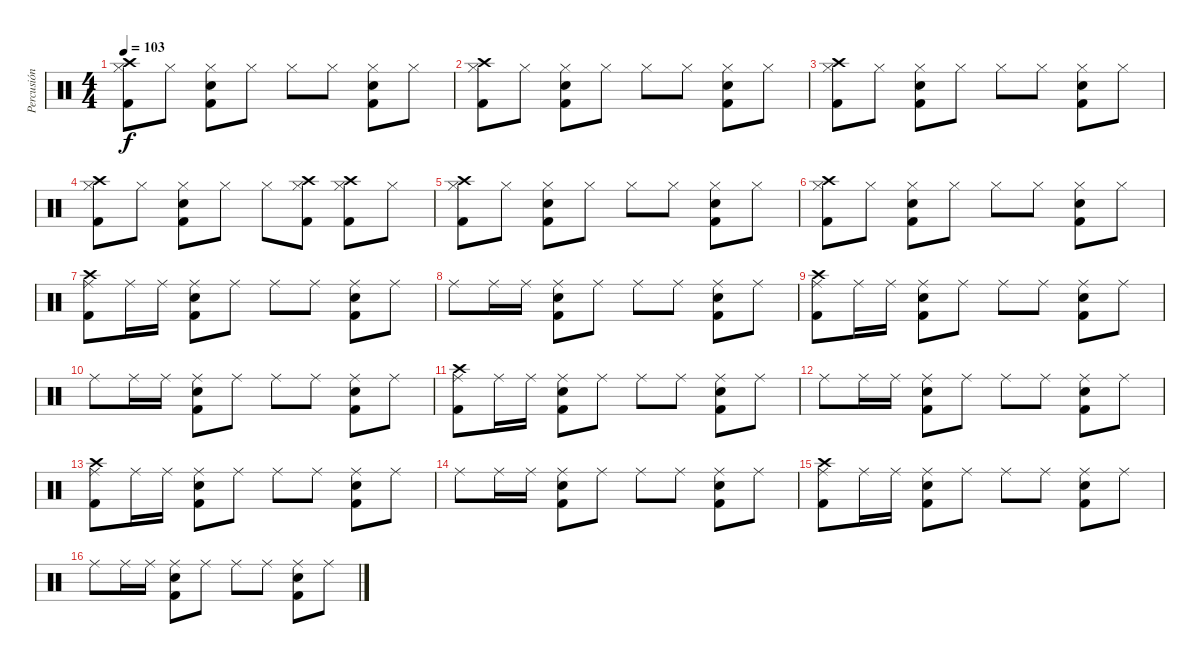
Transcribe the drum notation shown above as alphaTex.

\track ("Percusión" "Percusión") {instrument percussion}
\staff {score}
\articulation defaults
\ts (4 4)
\tempo 103
\clef neutral
\ks c
("Hi-Hat (closed)" "Crash high (hit)" "Kick (hit) 2").8{dy f} "Hi-Hat (closed)".8 ("Hi-Hat (closed)" "Snare (hit) 2" "Kick (hit) 2").8 "Hi-Hat (closed)".8 "Hi-Hat (closed)".8 "Hi-Hat (closed)".8 ("Hi-Hat (closed)" "Snare (hit) 2" "Kick (hit) 2").8 "Hi-Hat (closed)".8 |
("Hi-Hat (closed)" "Crash high (hit)" "Kick (hit) 2").8 "Hi-Hat (closed)".8 ("Hi-Hat (closed)" "Snare (hit) 2" "Kick (hit) 2").8 "Hi-Hat (closed)".8 "Hi-Hat (closed)".8 "Hi-Hat (closed)".8 ("Hi-Hat (closed)" "Snare (hit) 2" "Kick (hit) 2").8 "Hi-Hat (closed)".8 |
("Hi-Hat (closed)" "Crash high (hit)" "Kick (hit) 2").8 "Hi-Hat (closed)".8 ("Hi-Hat (closed)" "Snare (hit) 2" "Kick (hit) 2").8 "Hi-Hat (closed)".8 "Hi-Hat (closed)".8 "Hi-Hat (closed)".8 ("Hi-Hat (closed)" "Snare (hit) 2" "Kick (hit) 2").8 "Hi-Hat (closed)".8 |
("Hi-Hat (closed)" "Crash high (hit)" "Kick (hit) 2").8 "Hi-Hat (closed)".8 ("Hi-Hat (closed)" "Snare (hit) 2" "Kick (hit) 2").8 "Hi-Hat (closed)".8 "Hi-Hat (closed)".8 ("Hi-Hat (closed)" "Crash high (hit)" "Kick (hit) 2").8 ("Hi-Hat (closed)" "Crash high (hit)" "Kick (hit) 2").8 "Hi-Hat (closed)".8 |
("Hi-Hat (closed)" "Crash high (hit)" "Kick (hit) 2").8 "Hi-Hat (closed)".8 ("Hi-Hat (closed)" "Snare (hit) 2" "Kick (hit) 2").8 "Hi-Hat (closed)".8 "Hi-Hat (closed)".8 "Hi-Hat (closed)".8 ("Hi-Hat (closed)" "Snare (hit) 2" "Kick (hit) 2").8 "Hi-Hat (closed)".8 |
("Hi-Hat (closed)" "Crash high (hit)" "Kick (hit) 2").8 "Hi-Hat (closed)".8 ("Hi-Hat (closed)" "Snare (hit) 2" "Kick (hit) 2").8 "Hi-Hat (closed)".8 "Hi-Hat (closed)".8 "Hi-Hat (closed)".8 ("Hi-Hat (closed)" "Snare (hit) 2" "Kick (hit) 2").8 "Hi-Hat (closed)".8 |
("Ride (middle)" "Crash high (hit)" "Kick (hit) 2").8 "Ride (middle)".16 "Ride (middle)".16 ("Ride (middle)" "Snare (hit) 2" "Kick (hit) 2").8 "Ride (middle)".8 "Ride (middle)".8 "Ride (middle)".8 ("Ride (middle)" "Snare (hit) 2" "Kick (hit) 2").8 "Ride (middle)".8 |
"Ride (middle)".8 "Ride (middle)".16 "Ride (middle)".16 ("Ride (middle)" "Snare (hit) 2" "Kick (hit) 2").8 "Ride (middle)".8 "Ride (middle)".8 "Ride (middle)".8 ("Ride (middle)" "Snare (hit) 2" "Kick (hit) 2").8 "Ride (middle)".8 |
("Ride (middle)" "Crash high (hit)" "Kick (hit) 2").8 "Ride (middle)".16 "Ride (middle)".16 ("Ride (middle)" "Snare (hit) 2" "Kick (hit) 2").8 "Ride (middle)".8 "Ride (middle)".8 "Ride (middle)".8 ("Ride (middle)" "Snare (hit) 2" "Kick (hit) 2").8 "Ride (middle)".8 |
"Ride (middle)".8 "Ride (middle)".16 "Ride (middle)".16 ("Ride (middle)" "Snare (hit) 2" "Kick (hit) 2").8 "Ride (middle)".8 "Ride (middle)".8 "Ride (middle)".8 ("Ride (middle)" "Snare (hit) 2" "Kick (hit) 2").8 "Ride (middle)".8 |
("Ride (middle)" "Crash high (hit)" "Kick (hit) 2").8 "Ride (middle)".16 "Ride (middle)".16 ("Ride (middle)" "Snare (hit) 2" "Kick (hit) 2").8 "Ride (middle)".8 "Ride (middle)".8 "Ride (middle)".8 ("Ride (middle)" "Snare (hit) 2" "Kick (hit) 2").8 "Ride (middle)".8 |
"Ride (middle)".8 "Ride (middle)".16 "Ride (middle)".16 ("Ride (middle)" "Snare (hit) 2" "Kick (hit) 2").8 "Ride (middle)".8 "Ride (middle)".8 "Ride (middle)".8 ("Ride (middle)" "Snare (hit) 2" "Kick (hit) 2").8 "Ride (middle)".8 |
("Ride (middle)" "Crash high (hit)" "Kick (hit) 2").8 "Ride (middle)".16 "Ride (middle)".16 ("Ride (middle)" "Snare (hit) 2" "Kick (hit) 2").8 "Ride (middle)".8 "Ride (middle)".8 "Ride (middle)".8 ("Ride (middle)" "Snare (hit) 2" "Kick (hit) 2").8 "Ride (middle)".8 |
"Ride (middle)".8 "Ride (middle)".16 "Ride (middle)".16 ("Ride (middle)" "Snare (hit) 2" "Kick (hit) 2").8 "Ride (middle)".8 "Ride (middle)".8 "Ride (middle)".8 ("Ride (middle)" "Snare (hit) 2" "Kick (hit) 2").8 "Ride (middle)".8 |
("Ride (middle)" "Crash high (hit)" "Kick (hit) 2").8 "Ride (middle)".16 "Ride (middle)".16 ("Ride (middle)" "Snare (hit) 2" "Kick (hit) 2").8 "Ride (middle)".8 "Ride (middle)".8 "Ride (middle)".8 ("Ride (middle)" "Snare (hit) 2" "Kick (hit) 2").8 "Ride (middle)".8 |
"Ride (middle)".8 "Ride (middle)".16 "Ride (middle)".16 ("Ride (middle)" "Snare (hit) 2" "Kick (hit) 2").8 "Ride (middle)".8 "Ride (middle)".8 "Ride (middle)".8 ("Ride (middle)" "Snare (hit) 2" "Kick (hit) 2").8 "Ride (middle)".8
